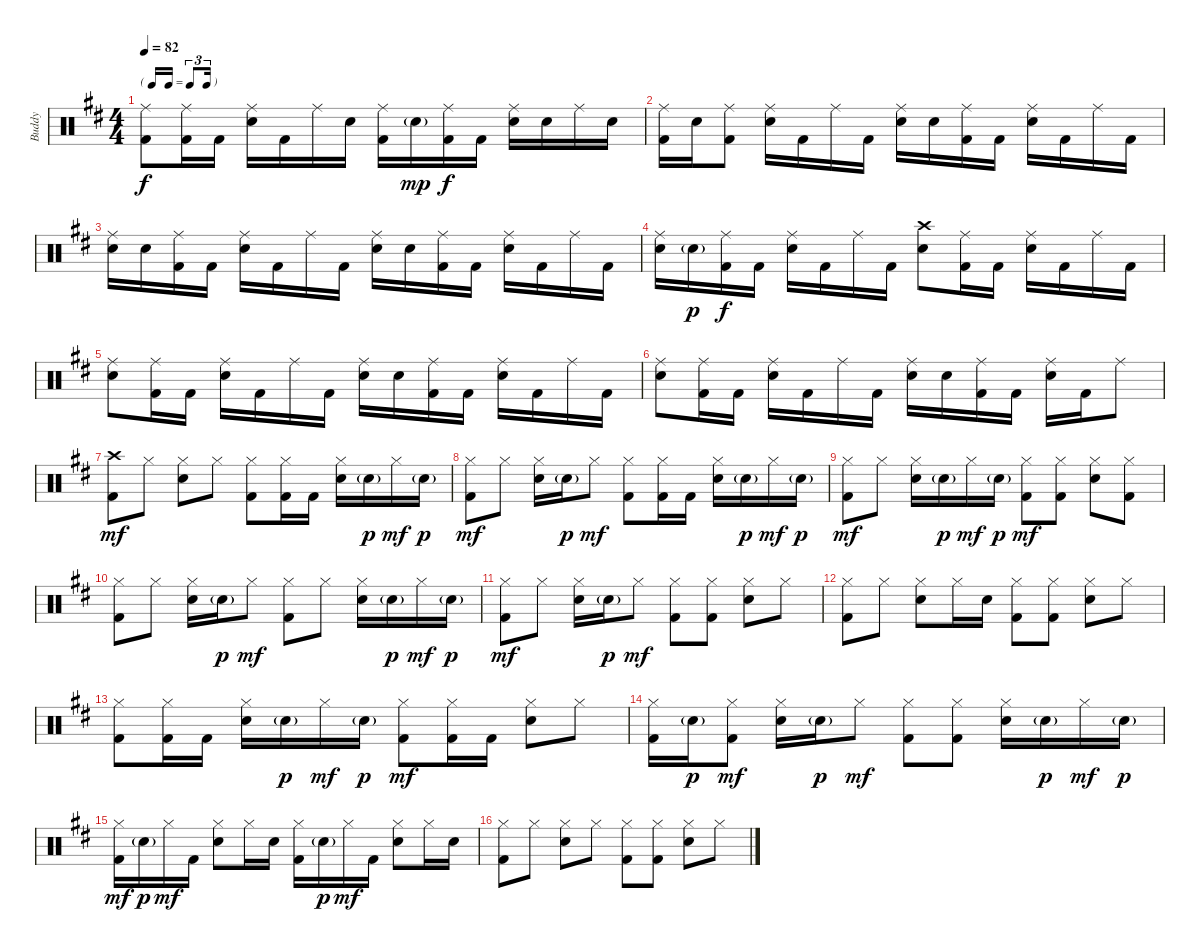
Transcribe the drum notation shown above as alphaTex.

\track ("Buddy" "Buddy") {instrument percussion}
\staff {score}
\articulation defaults
\ts (4 4)
\tf triplet16th
\tempo 82
\clef neutral
\ks d
("Ride (middle)" "Kick (hit) 2").8{dy f} ("Ride (middle)" "Kick (hit) 2").16 "Kick (hit) 2".16 ("Ride (middle)" "Snare (hit) 2").16 "Kick (hit) 2".16 "Ride (middle)".16 "Snare (hit) 2".16 ("Ride (middle)" "Kick (hit) 2").16 "Snare (hit) 2"{g}.16{dy mp} ("Ride (middle)" "Kick (hit) 2").16{dy f} "Kick (hit) 2".16 ("Ride (middle)" "Snare (hit) 2").16 "Snare (hit) 2".16 "Ride (middle)".16 "Snare (hit) 2".16 |
("Ride (middle)" "Kick (hit) 2").16 "Snare (hit) 2".16 ("Ride (middle)" "Kick (hit) 2").8 ("Ride (middle)" "Snare (hit) 2").16 "Kick (hit) 2".16 "Ride (middle)".16 "Kick (hit) 2".16 ("Ride (middle)" "Snare (hit) 2").16 "Snare (hit) 2".16 ("Ride (middle)" "Kick (hit) 2").16 "Kick (hit) 2".16 ("Ride (middle)" "Snare (hit) 2").16 "Kick (hit) 2".16 "Ride (middle)".16 "Kick (hit) 2".16 |
("Ride (middle)" "Snare (hit) 2").16 "Snare (hit) 2".16 ("Ride (middle)" "Kick (hit) 2").16 "Kick (hit) 2".16 ("Ride (middle)" "Snare (hit) 2").16 "Kick (hit) 2".16 "Ride (middle)".16 "Kick (hit) 2".16 ("Ride (middle)" "Snare (hit) 2").16 "Snare (hit) 2".16 ("Ride (middle)" "Kick (hit) 2").16 "Kick (hit) 2".16 ("Ride (middle)" "Snare (hit) 2").16 "Kick (hit) 2".16 "Ride (middle)".16 "Kick (hit) 2".16 |
("Ride (middle)" "Snare (hit) 2").16 "Snare (hit) 2"{g}.16{dy p} ("Ride (middle)" "Kick (hit) 2").16{dy f} "Kick (hit) 2".16 ("Ride (middle)" "Snare (hit) 2").16 "Kick (hit) 2".16 "Ride (middle)".16 "Kick (hit) 2".16 ("Crash high (hit)" "Snare (hit) 2").8 ("Ride (middle)" "Kick (hit) 2").16 "Kick (hit) 2".16 ("Ride (middle)" "Snare (hit) 2").16 "Kick (hit) 2".16 "Ride (middle)".16 "Kick (hit) 2".16 |
("Ride (middle)" "Snare (hit) 2").8 ("Ride (middle)" "Kick (hit) 2").16 "Kick (hit) 2".16 ("Ride (middle)" "Snare (hit) 2").16 "Kick (hit) 2".16 "Ride (middle)".16 "Kick (hit) 2".16 ("Ride (middle)" "Snare (hit) 2").16 "Snare (hit) 2".16 ("Ride (middle)" "Kick (hit) 2").16 "Kick (hit) 2".16 ("Ride (middle)" "Snare (hit) 2").16 "Kick (hit) 2".16 "Ride (middle)".16 "Kick (hit) 2".16 |
("Ride (middle)" "Snare (hit) 2").8 ("Ride (middle)" "Kick (hit) 2").16 "Kick (hit) 2".16 ("Ride (middle)" "Snare (hit) 2").16 "Kick (hit) 2".16 "Ride (middle)".16 "Kick (hit) 2".16 ("Ride (middle)" "Snare (hit) 2").16 "Snare (hit) 2".16 ("Ride (middle)" "Kick (hit) 2").16 "Kick (hit) 2".16 ("Ride (middle)" "Snare (hit) 2").16 "Kick (hit) 2".16 "Ride (middle)".8 |
("Crash high (hit)" "Kick (hit) 2").8{dy mf} "Hi-Hat (closed)".8 ("Hi-Hat (closed)" "Snare (hit) 2").8 "Hi-Hat (closed)".8 ("Hi-Hat (closed)" "Kick (hit) 2").8 ("Hi-Hat (closed)" "Kick (hit) 2").16 "Kick (hit) 2".16 ("Hi-Hat (closed)" "Snare (hit) 2").16 "Snare (hit) 2"{g}.16{dy p} "Hi-Hat (closed)".16{dy mf} "Snare (hit) 2"{g}.16{dy p} |
("Hi-Hat (closed)" "Kick (hit) 2").8{dy mf} "Hi-Hat (closed)".8 ("Hi-Hat (closed)" "Snare (hit) 2").16 "Snare (hit) 2"{g}.16{dy p} "Hi-Hat (closed)".8{dy mf} ("Hi-Hat (closed)" "Kick (hit) 2").8 ("Hi-Hat (closed)" "Kick (hit) 2").16 "Kick (hit) 2".16 ("Hi-Hat (closed)" "Snare (hit) 2").16 "Snare (hit) 2"{g}.16{dy p} "Hi-Hat (closed)".16{dy mf} "Snare (hit) 2"{g}.16{dy p} |
("Hi-Hat (closed)" "Kick (hit) 2").8{dy mf} "Hi-Hat (closed)".8 ("Hi-Hat (closed)" "Snare (hit) 2").16 "Snare (hit) 2"{g}.16{dy p} "Hi-Hat (closed)".16{dy mf} "Snare (hit) 2"{g}.16{dy p} ("Hi-Hat (closed)" "Kick (hit) 2").8{dy mf} ("Hi-Hat (closed)" "Kick (hit) 2").8 ("Hi-Hat (closed)" "Snare (hit) 2").8 ("Hi-Hat (closed)" "Kick (hit) 2").8 |
("Hi-Hat (closed)" "Kick (hit) 2").8 "Hi-Hat (closed)".8 ("Hi-Hat (closed)" "Snare (hit) 2").16 "Snare (hit) 2"{g}.16{dy p} "Hi-Hat (closed)".8{dy mf} ("Hi-Hat (closed)" "Kick (hit) 2").8 "Hi-Hat (closed)".8 ("Hi-Hat (closed)" "Snare (hit) 2").16 "Snare (hit) 2"{g}.16{dy p} "Hi-Hat (closed)".16{dy mf} "Snare (hit) 2"{g}.16{dy p} |
("Hi-Hat (closed)" "Kick (hit) 2").8{dy mf} "Hi-Hat (closed)".8 ("Hi-Hat (closed)" "Snare (hit) 2").16 "Snare (hit) 2"{g}.16{dy p} "Hi-Hat (closed)".8{dy mf} ("Hi-Hat (closed)" "Kick (hit) 2").8 ("Hi-Hat (closed)" "Kick (hit) 2").8 ("Hi-Hat (closed)" "Snare (hit) 2").8 "Hi-Hat (closed)".8 |
("Hi-Hat (closed)" "Kick (hit) 2").8 "Hi-Hat (closed)".8 ("Hi-Hat (closed)" "Snare (hit) 2").8 "Hi-Hat (closed)".16 "Snare (hit) 2".16 ("Hi-Hat (closed)" "Kick (hit) 2").8 ("Hi-Hat (closed)" "Kick (hit) 2").8 ("Hi-Hat (closed)" "Snare (hit) 2").8 "Hi-Hat (closed)".8 |
("Hi-Hat (closed)" "Kick (hit) 2").8 ("Hi-Hat (closed)" "Kick (hit) 2").16 "Kick (hit) 2".16 ("Hi-Hat (closed)" "Snare (hit) 2").16 "Snare (hit) 2"{g}.16{dy p} "Hi-Hat (closed)".16{dy mf} "Snare (hit) 2"{g}.16{dy p} ("Hi-Hat (closed)" "Kick (hit) 2").8{dy mf} ("Hi-Hat (closed)" "Kick (hit) 2").16 "Kick (hit) 2".16 ("Hi-Hat (closed)" "Snare (hit) 2").8 "Hi-Hat (closed)".8 |
("Hi-Hat (closed)" "Kick (hit) 2").16 "Snare (hit) 2"{g}.16{dy p} ("Hi-Hat (closed)" "Kick (hit) 2").8{dy mf} ("Hi-Hat (closed)" "Snare (hit) 2").16 "Snare (hit) 2"{g}.16{dy p} "Hi-Hat (closed)".8{dy mf} ("Hi-Hat (closed)" "Kick (hit) 2").8 ("Hi-Hat (closed)" "Kick (hit) 2").8 ("Hi-Hat (closed)" "Snare (hit) 2").16 "Snare (hit) 2"{g}.16{dy p} "Hi-Hat (closed)".16{dy mf} "Snare (hit) 2"{g}.16{dy p} |
("Hi-Hat (closed)" "Kick (hit) 2").16{dy mf} "Snare (hit) 2"{g}.16{dy p} "Hi-Hat (closed)".16{dy mf} "Kick (hit) 2".16 ("Hi-Hat (closed)" "Snare (hit) 2").8 "Hi-Hat (closed)".16 "Snare (hit) 2".16 ("Hi-Hat (closed)" "Kick (hit) 2").16 "Snare (hit) 2"{g}.16{dy p} "Hi-Hat (closed)".16{dy mf} "Kick (hit) 2".16 ("Hi-Hat (closed)" "Snare (hit) 2").8 "Hi-Hat (closed)".16 "Snare (hit) 2".16 |
("Hi-Hat (closed)" "Kick (hit) 2").8 "Hi-Hat (closed)".8 ("Hi-Hat (closed)" "Snare (hit) 2").8 "Hi-Hat (closed)".8 ("Hi-Hat (closed)" "Kick (hit) 2").8 ("Hi-Hat (closed)" "Kick (hit) 2").8 ("Hi-Hat (closed)" "Snare (hit) 2").8 "Hi-Hat (closed)".8
